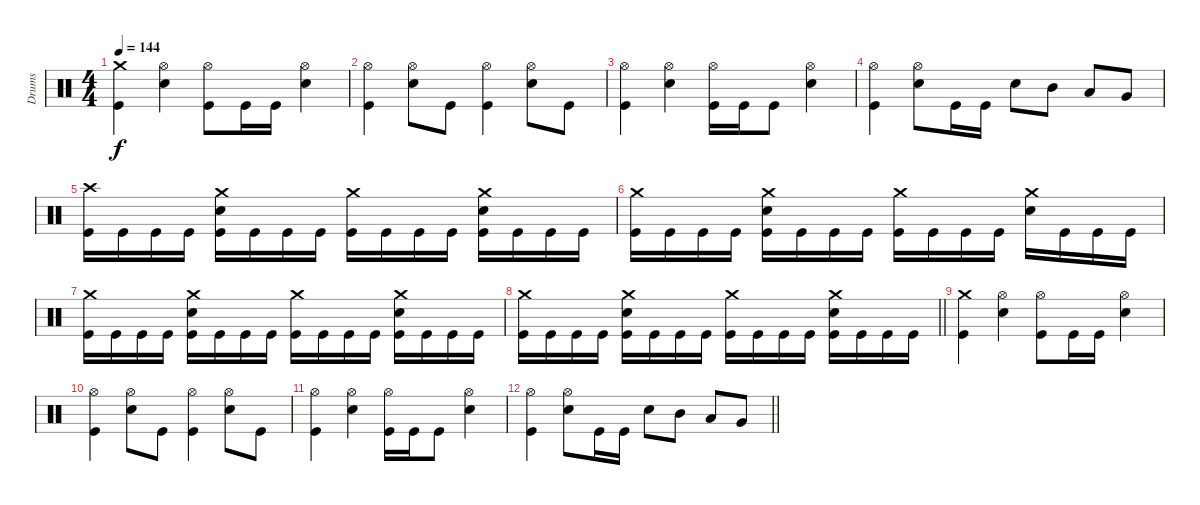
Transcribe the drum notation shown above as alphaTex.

\track ("Drums" "Drums") {instrument percussion}
\staff {score}
\articulation defaults
\ts (4 4)
\tempo 144
\clef neutral
\ks c
("Crash medium (hit)" "Kick (hit)").4{dy f} ("Hi-Hat (open)" "Snare (hit) 2").4 ("Hi-Hat (open)" "Kick (hit)").8 "Kick (hit)".16 "Kick (hit)".16 ("Hi-Hat (open)" "Snare (hit) 2").4 |
("Hi-Hat (open)" "Kick (hit)").4 ("Hi-Hat (open)" "Snare (hit) 2").8 "Kick (hit)".8 ("Hi-Hat (open)" "Kick (hit)").4 ("Hi-Hat (open)" "Snare (hit) 2").8 "Kick (hit)".8 |
("Hi-Hat (open)" "Kick (hit)").4 ("Hi-Hat (open)" "Snare (hit) 2").4 ("Hi-Hat (open)" "Kick (hit)").16 "Kick (hit)".16 "Kick (hit)".8 ("Hi-Hat (open)" "Snare (hit) 2").4 |
("Hi-Hat (open)" "Kick (hit)").4 ("Hi-Hat (open)" "Snare (hit) 2").8 "Kick (hit)".16 "Kick (hit)".16 "Snare (hit) 2".8 "Mid Tom (hit)".8 "Low Tom (hit)".8 "Very Low Tom (hit)".8 |
("Crash high (hit)" "Kick (hit)").16 "Kick (hit)".16 "Kick (hit)".16 "Kick (hit)".16 ("Crash medium (hit)" "Snare (hit) 2" "Kick (hit)").16 "Kick (hit)".16 "Kick (hit)".16 "Kick (hit)".16 ("Crash medium (hit)" "Kick (hit)").16 "Kick (hit)".16 "Kick (hit)".16 "Kick (hit)".16 ("Crash medium (hit)" "Snare (hit) 2" "Kick (hit)").16 "Kick (hit)".16 "Kick (hit)".16 "Kick (hit)".16 |
("Crash medium (hit)" "Kick (hit)").16 "Kick (hit)".16 "Kick (hit)".16 "Kick (hit)".16 ("Crash medium (hit)" "Snare (hit) 2" "Kick (hit)").16 "Kick (hit)".16 "Kick (hit)".16 "Kick (hit)".16 ("Crash medium (hit)" "Kick (hit)").16 "Kick (hit)".16 "Kick (hit)".16 "Kick (hit)".16 ("Crash medium (hit)" "Snare (hit) 2").16 "Kick (hit)".16 "Kick (hit)".16 "Kick (hit)".16 |
("Crash medium (hit)" "Kick (hit)").16 "Kick (hit)".16 "Kick (hit)".16 "Kick (hit)".16 ("Crash medium (hit)" "Snare (hit) 2" "Kick (hit)").16 "Kick (hit)".16 "Kick (hit)".16 "Kick (hit)".16 ("Crash medium (hit)" "Kick (hit)").16 "Kick (hit)".16 "Kick (hit)".16 "Kick (hit)".16 ("Crash medium (hit)" "Snare (hit) 2" "Kick (hit)").16 "Kick (hit)".16 "Kick (hit)".16 "Kick (hit)".16 |
\barLineRight lightlight
("Crash medium (hit)" "Kick (hit)").16 "Kick (hit)".16 "Kick (hit)".16 "Kick (hit)".16 ("Crash medium (hit)" "Snare (hit) 2" "Kick (hit)").16 "Kick (hit)".16 "Kick (hit)".16 "Kick (hit)".16 ("Crash medium (hit)" "Kick (hit)").16 "Kick (hit)".16 "Kick (hit)".16 "Kick (hit)".16 ("Crash medium (hit)" "Snare (hit) 2" "Kick (hit)").16 "Kick (hit)".16 "Kick (hit)".16 "Kick (hit)".16 |
("Crash medium (hit)" "Kick (hit)").4 ("Hi-Hat (open)" "Snare (hit) 2").4 ("Hi-Hat (open)" "Kick (hit)").8 "Kick (hit)".16 "Kick (hit)".16 ("Hi-Hat (open)" "Snare (hit) 2").4 |
("Hi-Hat (open)" "Kick (hit)").4 ("Hi-Hat (open)" "Snare (hit) 2").8 "Kick (hit)".8 ("Hi-Hat (open)" "Kick (hit)").4 ("Hi-Hat (open)" "Snare (hit) 2").8 "Kick (hit)".8 |
("Hi-Hat (open)" "Kick (hit)").4 ("Hi-Hat (open)" "Snare (hit) 2").4 ("Hi-Hat (open)" "Kick (hit)").16 "Kick (hit)".16 "Kick (hit)".8 ("Hi-Hat (open)" "Snare (hit) 2").4 |
\barLineRight lightlight
("Hi-Hat (open)" "Kick (hit)").4 ("Hi-Hat (open)" "Snare (hit) 2").8 "Kick (hit)".16 "Kick (hit)".16 "Snare (hit) 2".8 "Mid Tom (hit)".8 "Low Tom (hit)".8 "Very Low Tom (hit)".8
